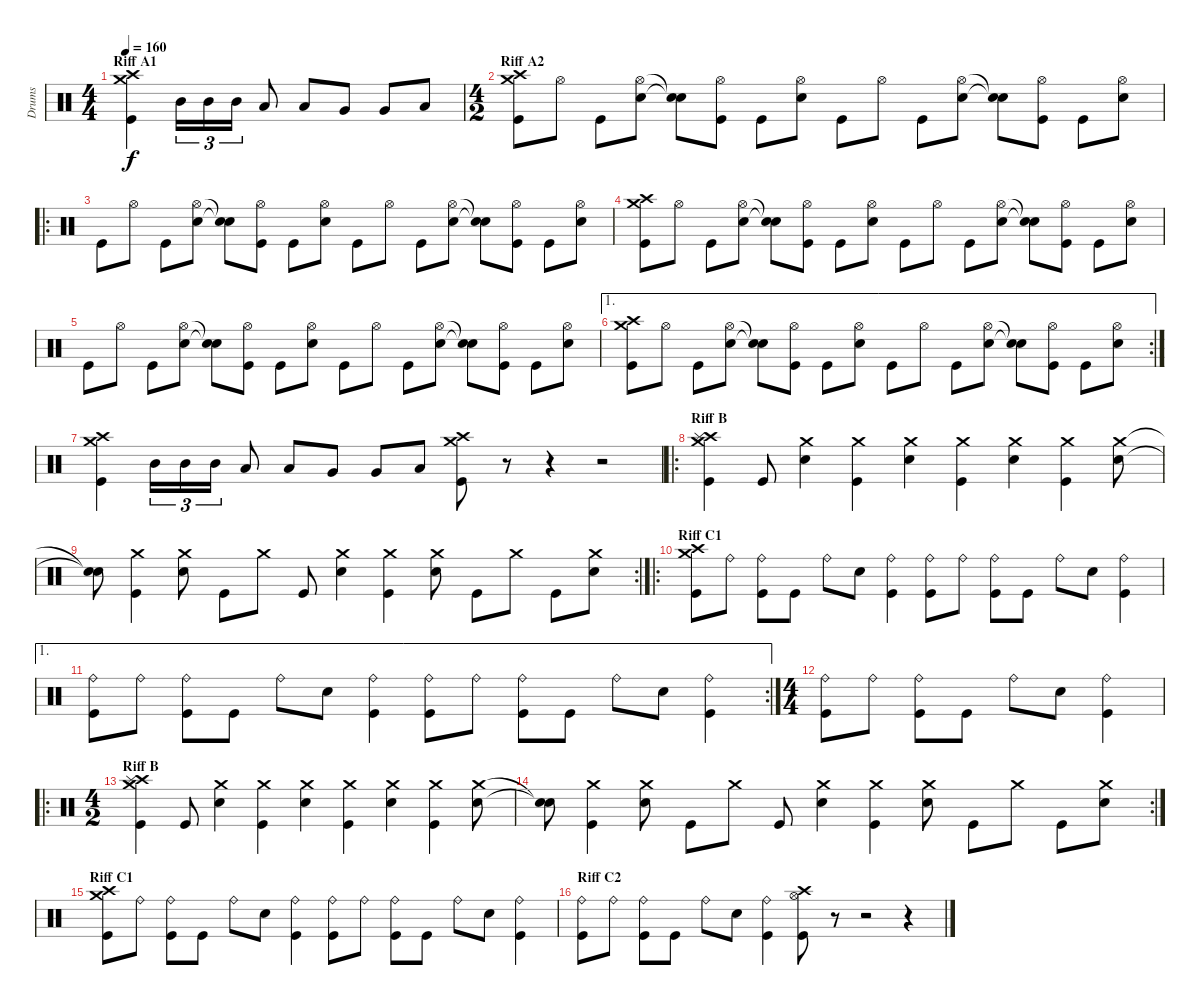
\track ("Drums" "Drums") {instrument percussion}
\staff {score}
\articulation defaults
\ts (4 4)
\section ("" "Riff A1")
\tempo 160
\clef neutral
\ks c
("Kick (hit)" "Crash medium (hit)" "Crash high (hit)").4{dy f} "Mid Tom (hit)".16{tu (3 2)} "Mid Tom (hit)".16{tu (3 2)} "Mid Tom (hit)".16{tu (3 2)} "Low Tom (hit)".8 "Low Tom (hit)".8 "Very Low Tom (hit)".8 "Very Low Tom (hit)".8 "Low Floor Tom (hit)".8 |
\ts (4 2)
\section ("" "Riff A2")
("Kick (hit)" "Crash medium (hit)" "Crash high (hit)").8 "Hi-Hat (open)".8 "Kick (hit)".8 ("Hi-Hat (open)" "Electric Snare (hit)").8 ("Snare (hit)"{t} "Snare (hit)"{t}).8 ("Kick (hit)" "Hi-Hat (open)").8 "Kick (hit)".8 ("Hi-Hat (open)" "Electric Snare (hit)").8 "Kick (hit)".8 "Hi-Hat (open)".8 "Kick (hit)".8 ("Hi-Hat (open)" "Electric Snare (hit)").8 ("Snare (hit)"{t} "Snare (hit)"{t}).8 ("Kick (hit)" "Hi-Hat (open)").8 "Kick (hit)".8 ("Hi-Hat (open)" "Electric Snare (hit)").8 |
\ro "Kick (hit)".8 "Hi-Hat (open)".8 "Kick (hit)".8
("Hi-Hat (open)" "Electric Snare (hit)").8 ("Snare (hit)"{t} "Snare (hit)"{t}).8 ("Kick (hit)" "Hi-Hat (open)").8 "Kick (hit)".8 ("Hi-Hat (open)" "Electric Snare (hit)").8 "Kick (hit)".8 "Hi-Hat (open)".8 "Kick (hit)".8 ("Hi-Hat (open)" "Electric Snare (hit)").8 ("Snare (hit)"{t} "Snare (hit)"{t}).8 ("Kick (hit)" "Hi-Hat (open)").8 "Kick (hit)".8 ("Hi-Hat (open)" "Electric Snare (hit)").8 |
("Kick (hit)" "Crash medium (hit)" "Crash high (hit)").8 "Hi-Hat (open)".8 "Kick (hit)".8 ("Hi-Hat (open)" "Electric Snare (hit)").8 ("Snare (hit)"{t} "Snare (hit)"{t}).8 ("Kick (hit)" "Hi-Hat (open)").8 "Kick (hit)".8 ("Hi-Hat (open)" "Electric Snare (hit)").8 "Kick (hit)".8 "Hi-Hat (open)".8 "Kick (hit)".8 ("Hi-Hat (open)" "Electric Snare (hit)").8 ("Snare (hit)"{t} "Snare (hit)"{t}).8 ("Kick (hit)" "Hi-Hat (open)").8 "Kick (hit)".8 ("Hi-Hat (open)" "Electric Snare (hit)").8 |
"Kick (hit)".8 "Hi-Hat (open)".8 "Kick (hit)".8 ("Hi-Hat (open)" "Electric Snare (hit)").8 ("Snare (hit)"{t} "Snare (hit)"{t}).8 ("Kick (hit)" "Hi-Hat (open)").8 "Kick (hit)".8 ("Hi-Hat (open)" "Electric Snare (hit)").8 "Kick (hit)".8 "Hi-Hat (open)".8 "Kick (hit)".8 ("Hi-Hat (open)" "Electric Snare (hit)").8 ("Snare (hit)"{t} "Snare (hit)"{t}).8 ("Kick (hit)" "Hi-Hat (open)").8 "Kick (hit)".8 ("Hi-Hat (open)" "Electric Snare (hit)").8 |
\ae 1
\rc 2
("Kick (hit)" "Crash medium (hit)" "Crash high (hit)").8 "Hi-Hat (open)".8 "Kick (hit)".8 ("Hi-Hat (open)" "Electric Snare (hit)").8 ("Snare (hit)"{t} "Snare (hit)"{t}).8 ("Kick (hit)" "Hi-Hat (open)").8 "Kick (hit)".8 ("Hi-Hat (open)" "Electric Snare (hit)").8 "Kick (hit)".8 "Hi-Hat (open)".8 "Kick (hit)".8 ("Hi-Hat (open)" "Electric Snare (hit)").8 ("Snare (hit)"{t} "Snare (hit)"{t}).8 ("Kick (hit)" "Hi-Hat (open)").8 "Kick (hit)".8 ("Hi-Hat (open)" "Electric Snare (hit)").8 |
("Kick (hit)" "Crash medium (hit)" "Crash high (hit)").4 "Mid Tom (hit)".16{tu (3 2)} "Mid Tom (hit)".16{tu (3 2)} "Mid Tom (hit)".16{tu (3 2)} "Low Tom (hit)".8 "Low Tom (hit)".8 "Very Low Tom (hit)".8 "Very Low Tom (hit)".8 "Low Floor Tom (hit)".8 ("Kick (hit)" "Crash medium (hit)" "Crash high (hit)").8 r.8 r.4 r.2 |
\ro
\section ("" "Riff B")
("Kick (hit)" "Crash medium (hit)" "Crash high (hit)" "Splash (hit)").4 "Kick (hit)".8 ("Crash medium (hit)" "Electric Snare (hit)").4 ("Kick (hit)" "Crash medium (hit)").4 ("Crash medium (hit)" "Electric Snare (hit)").4 ("Kick (hit)" "Crash medium (hit)").4 ("Crash medium (hit)" "Electric Snare (hit)").4 ("Kick (hit)" "Crash medium (hit)").4 ("Crash medium (hit)" "Electric Snare (hit)").8 |
\rc 2
("Snare (hit)"{t} "Snare (hit)"{t}).8 ("Kick (hit)" "Crash medium (hit)").4 ("Crash medium (hit)" "Electric Snare (hit)").8 "Kick (hit)".8 "Crash medium (hit)".8 "Kick (hit)".8 ("Crash medium (hit)" "Electric Snare (hit)").4 ("Kick (hit)" "Crash medium (hit)").4 ("Crash medium (hit)" "Electric Snare (hit)").8 "Kick (hit)".8 "Crash medium (hit)".8 "Kick (hit)".8 ("Crash medium (hit)" "Electric Snare (hit)").8 |
\ro
\section ("" "Riff C1")
("Kick (hit)" "Crash high (hit)" "Crash medium (hit)").8 "Ride (bell)".8 ("Kick (hit)" "Ride (bell)").8 "Kick (hit)".8 "Ride (bell)".8 "Electric Snare (hit)".8 ("Kick (hit)" "Ride (bell)").4 ("Kick (hit)" "Ride (bell)").8 "Ride (bell)".8 ("Kick (hit)" "Ride (bell)").8 "Kick (hit)".8 "Ride (bell)".8 "Electric Snare (hit)".8 ("Kick (hit)" "Ride (bell)").4 |
\ae 1
\rc 2
("Kick (hit)" "Ride (bell)").8 "Ride (bell)".8 ("Kick (hit)" "Ride (bell)").8 "Kick (hit)".8 "Ride (bell)".8 "Electric Snare (hit)".8 ("Kick (hit)" "Ride (bell)").4 ("Kick (hit)" "Ride (bell)").8 "Ride (bell)".8 ("Kick (hit)" "Ride (bell)").8 "Kick (hit)".8 "Ride (bell)".8 "Electric Snare (hit)".8 ("Kick (hit)" "Ride (bell)").4 |
\ts (4 4)
("Kick (hit)" "Ride (bell)").8 "Ride (bell)".8 ("Kick (hit)" "Ride (bell)").8 "Kick (hit)".8 "Ride (bell)".8 "Electric Snare (hit)".8 ("Kick (hit)" "Ride (bell)").4 |
\ro
\ts (4 2)
\section ("" "Riff B")
("Kick (hit)" "Crash medium (hit)" "Crash high (hit)" "Splash (hit)").4 "Kick (hit)".8 ("Crash medium (hit)" "Electric Snare (hit)").4 ("Kick (hit)" "Crash medium (hit)").4 ("Crash medium (hit)" "Electric Snare (hit)").4 ("Kick (hit)" "Crash medium (hit)").4 ("Crash medium (hit)" "Electric Snare (hit)").4 ("Kick (hit)" "Crash medium (hit)").4 ("Crash medium (hit)" "Electric Snare (hit)").8 |
\rc 2
("Snare (hit)"{t} "Snare (hit)"{t}).8 ("Kick (hit)" "Crash medium (hit)").4 ("Crash medium (hit)" "Electric Snare (hit)").8 "Kick (hit)".8 "Crash medium (hit)".8 "Kick (hit)".8 ("Crash medium (hit)" "Electric Snare (hit)").4 ("Kick (hit)" "Crash medium (hit)").4 ("Crash medium (hit)" "Electric Snare (hit)").8 "Kick (hit)".8 "Crash medium (hit)".8 "Kick (hit)".8 ("Crash medium (hit)" "Electric Snare (hit)").8 |
\section ("" "Riff C1")
("Kick (hit)" "Crash high (hit)" "Crash medium (hit)").8 "Ride (bell)".8 ("Kick (hit)" "Ride (bell)").8 "Kick (hit)".8 "Ride (bell)".8 "Electric Snare (hit)".8 ("Kick (hit)" "Ride (bell)").4 ("Kick (hit)" "Ride (bell)").8 "Ride (bell)".8 ("Kick (hit)" "Ride (bell)").8 "Kick (hit)".8 "Ride (bell)".8 "Electric Snare (hit)".8 ("Kick (hit)" "Ride (bell)").4 |
\section ("" "Riff C2")
("Kick (hit)" "Ride (bell)").8 "Ride (bell)".8 ("Kick (hit)" "Ride (bell)").8 "Kick (hit)".8 "Ride (bell)".8 "Electric Snare (hit)".8 ("Kick (hit)" "Ride (bell)").4 ("Kick (hit)" "Hi-Hat (open)" "Crash high (hit)").8 r.8 r.2 r.4
